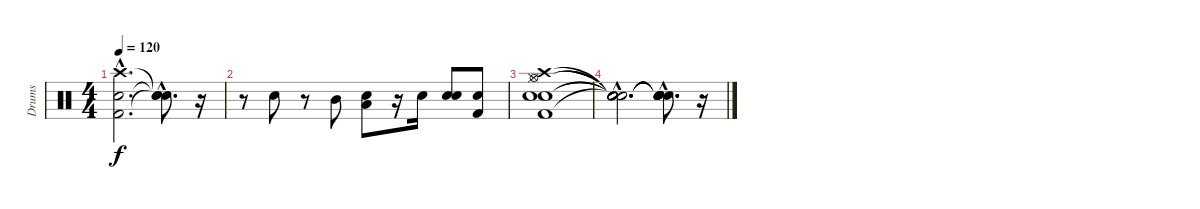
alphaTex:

\track ("Drums" "Drums") {instrument percussion}
\staff {score}
\articulation defaults
\ts (4 4)
\tempo 120
\clef neutral
\ks c
("Snare (hit)"{hac} "Kick (hit) 2"{hac} "Crash high (hit)"{hac}).2{d dy f} ("Snare (hit)"{hac t} "Snare (hit)"{hac t} "Snare (hit)"{hac t}).8{d} r.16 |
r.8 "Snare (hit) 2".8 r.8 "Mid Tom (hit)".8 ("Snare (hit)" "Low Tom (hit)").8 r.16 "Snare (hit) 2".16 ("Snare (hit)" "Snare (hit) 2").8 ("Snare (hit)" "Kick (hit) 2").8 |
("Snare (hit)" "Kick (hit) 2" "Snare (hit) 2" "Hi-Hat (closed)" "Hi-Hat (open)" "Crash high (hit)").1 |
("Snare (hit)"{hac t} "Snare (hit)"{hac t} "Snare (hit)"{hac t} "Snare (hit)"{hac t} "Snare (hit)"{hac t} "Snare (hit)"{hac t}).2{d} ("Snare (hit)"{hac t} "Snare (hit)"{hac t} "Snare (hit)"{hac t} "Snare (hit)"{hac t} "Snare (hit)"{hac t} "Snare (hit)"{hac t}).8{d} r.16
